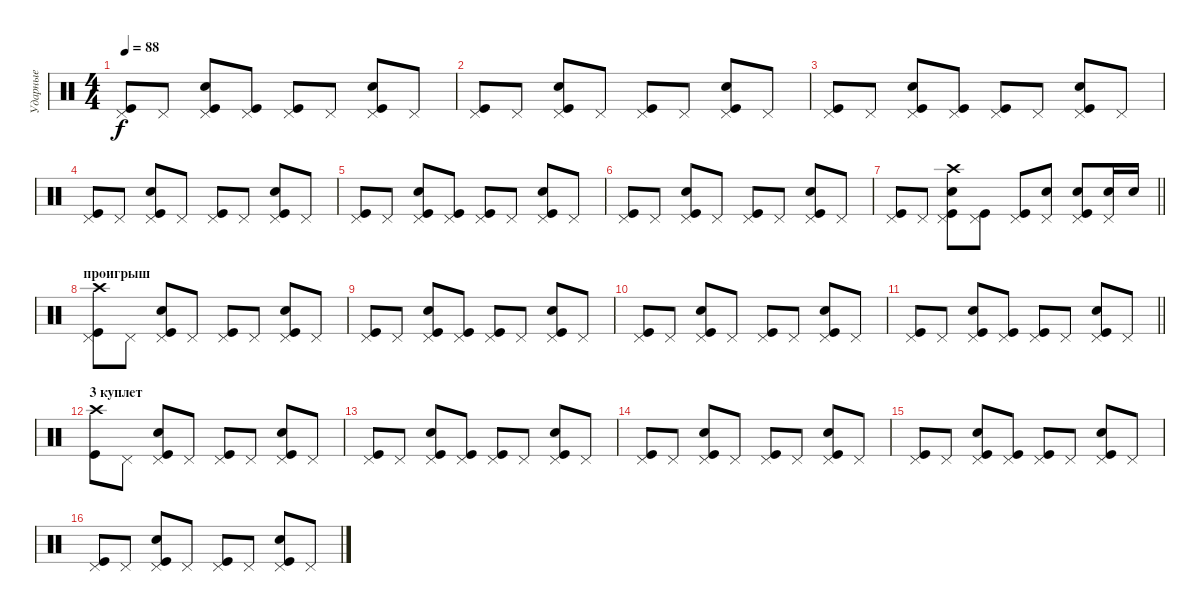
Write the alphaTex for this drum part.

\track ("Ударные" "Ударные") {instrument percussion}
\staff {score}
\articulation defaults
\ts (4 4)
\tempo 88
\clef neutral
\ks c
("Pedal Hi-Hat (hit)" "Kick (hit)").8{dy f} "Pedal Hi-Hat (hit)".8 ("Pedal Hi-Hat (hit)" "Kick (hit)" "Snare (hit) 2").8 ("Pedal Hi-Hat (hit)" "Kick (hit)").8 ("Pedal Hi-Hat (hit)" "Kick (hit)").8 "Pedal Hi-Hat (hit)".8 ("Pedal Hi-Hat (hit)" "Kick (hit)" "Snare (hit) 2").8 "Pedal Hi-Hat (hit)".8 |
("Pedal Hi-Hat (hit)" "Kick (hit)").8 "Pedal Hi-Hat (hit)".8 ("Pedal Hi-Hat (hit)" "Kick (hit)" "Snare (hit) 2").8 "Pedal Hi-Hat (hit)".8 ("Pedal Hi-Hat (hit)" "Kick (hit)").8 "Pedal Hi-Hat (hit)".8 ("Pedal Hi-Hat (hit)" "Kick (hit)" "Snare (hit) 2").8 "Pedal Hi-Hat (hit)".8 |
("Pedal Hi-Hat (hit)" "Kick (hit)").8 "Pedal Hi-Hat (hit)".8 ("Pedal Hi-Hat (hit)" "Kick (hit)" "Snare (hit) 2").8 ("Pedal Hi-Hat (hit)" "Kick (hit)").8 ("Pedal Hi-Hat (hit)" "Kick (hit)").8 "Pedal Hi-Hat (hit)".8 ("Pedal Hi-Hat (hit)" "Kick (hit)" "Snare (hit) 2").8 "Pedal Hi-Hat (hit)".8 |
("Pedal Hi-Hat (hit)" "Kick (hit)").8 "Pedal Hi-Hat (hit)".8 ("Pedal Hi-Hat (hit)" "Kick (hit)" "Snare (hit) 2").8 "Pedal Hi-Hat (hit)".8 ("Pedal Hi-Hat (hit)" "Kick (hit)").8 "Pedal Hi-Hat (hit)".8 ("Pedal Hi-Hat (hit)" "Kick (hit)" "Snare (hit) 2").8 "Pedal Hi-Hat (hit)".8 |
("Pedal Hi-Hat (hit)" "Kick (hit)").8 "Pedal Hi-Hat (hit)".8 ("Pedal Hi-Hat (hit)" "Kick (hit)" "Snare (hit) 2").8 ("Pedal Hi-Hat (hit)" "Kick (hit)").8 ("Pedal Hi-Hat (hit)" "Kick (hit)").8 "Pedal Hi-Hat (hit)".8 ("Pedal Hi-Hat (hit)" "Kick (hit)" "Snare (hit) 2").8 "Pedal Hi-Hat (hit)".8 |
("Pedal Hi-Hat (hit)" "Kick (hit)").8 "Pedal Hi-Hat (hit)".8 ("Pedal Hi-Hat (hit)" "Kick (hit)" "Snare (hit) 2").8 "Pedal Hi-Hat (hit)".8 ("Pedal Hi-Hat (hit)" "Kick (hit)").8 "Pedal Hi-Hat (hit)".8 ("Pedal Hi-Hat (hit)" "Kick (hit)" "Snare (hit) 2").8 "Pedal Hi-Hat (hit)".8 |
\barLineRight lightlight
("Pedal Hi-Hat (hit)" "Kick (hit)").8 "Pedal Hi-Hat (hit)".8 ("Pedal Hi-Hat (hit)" "Kick (hit)" "Snare (hit) 2" "Crash high (hit)").8 ("Pedal Hi-Hat (hit)" "Kick (hit)").8 ("Pedal Hi-Hat (hit)" "Kick (hit)").8 ("Pedal Hi-Hat (hit)" "Snare (hit) 2").8 ("Pedal Hi-Hat (hit)" "Kick (hit)" "Snare (hit) 2").8 ("Pedal Hi-Hat (hit)" "Snare (hit) 2").16 "Snare (hit) 2".16 |
\section ("" "проигрыш")
("Pedal Hi-Hat (hit)" "Kick (hit)" "Crash high (hit)").8 "Pedal Hi-Hat (hit)".8 ("Pedal Hi-Hat (hit)" "Kick (hit)" "Snare (hit) 2").8 "Pedal Hi-Hat (hit)".8 ("Pedal Hi-Hat (hit)" "Kick (hit)").8 "Pedal Hi-Hat (hit)".8 ("Pedal Hi-Hat (hit)" "Kick (hit)" "Snare (hit) 2").8 "Pedal Hi-Hat (hit)".8 |
("Pedal Hi-Hat (hit)" "Kick (hit)").8 "Pedal Hi-Hat (hit)".8 ("Pedal Hi-Hat (hit)" "Kick (hit)" "Snare (hit) 2").8 ("Pedal Hi-Hat (hit)" "Kick (hit)").8 ("Pedal Hi-Hat (hit)" "Kick (hit)").8 "Pedal Hi-Hat (hit)".8 ("Pedal Hi-Hat (hit)" "Kick (hit)" "Snare (hit) 2").8 "Pedal Hi-Hat (hit)".8 |
("Pedal Hi-Hat (hit)" "Kick (hit)").8 "Pedal Hi-Hat (hit)".8 ("Pedal Hi-Hat (hit)" "Kick (hit)" "Snare (hit) 2").8 "Pedal Hi-Hat (hit)".8 ("Pedal Hi-Hat (hit)" "Kick (hit)").8 "Pedal Hi-Hat (hit)".8 ("Pedal Hi-Hat (hit)" "Kick (hit)" "Snare (hit) 2").8 "Pedal Hi-Hat (hit)".8 |
\barLineRight lightlight
("Pedal Hi-Hat (hit)" "Kick (hit)").8 "Pedal Hi-Hat (hit)".8 ("Pedal Hi-Hat (hit)" "Kick (hit)" "Snare (hit) 2").8 ("Pedal Hi-Hat (hit)" "Kick (hit)").8 ("Pedal Hi-Hat (hit)" "Kick (hit)").8 "Pedal Hi-Hat (hit)".8 ("Pedal Hi-Hat (hit)" "Kick (hit)" "Snare (hit) 2").8 "Pedal Hi-Hat (hit)".8 |
\section ("" "3 куплет")
("Crash high (hit)" "Kick (hit)").8 "Pedal Hi-Hat (hit)".8 ("Pedal Hi-Hat (hit)" "Kick (hit)" "Snare (hit) 2").8 "Pedal Hi-Hat (hit)".8 ("Pedal Hi-Hat (hit)" "Kick (hit)").8 "Pedal Hi-Hat (hit)".8 ("Pedal Hi-Hat (hit)" "Kick (hit)" "Snare (hit) 2").8 "Pedal Hi-Hat (hit)".8 |
("Pedal Hi-Hat (hit)" "Kick (hit)").8 "Pedal Hi-Hat (hit)".8 ("Pedal Hi-Hat (hit)" "Kick (hit)" "Snare (hit) 2").8 ("Pedal Hi-Hat (hit)" "Kick (hit)").8 ("Pedal Hi-Hat (hit)" "Kick (hit)").8 "Pedal Hi-Hat (hit)".8 ("Pedal Hi-Hat (hit)" "Kick (hit)" "Snare (hit) 2").8 "Pedal Hi-Hat (hit)".8 |
("Pedal Hi-Hat (hit)" "Kick (hit)").8 "Pedal Hi-Hat (hit)".8 ("Pedal Hi-Hat (hit)" "Kick (hit)" "Snare (hit) 2").8 "Pedal Hi-Hat (hit)".8 ("Pedal Hi-Hat (hit)" "Kick (hit)").8 "Pedal Hi-Hat (hit)".8 ("Pedal Hi-Hat (hit)" "Kick (hit)" "Snare (hit) 2").8 "Pedal Hi-Hat (hit)".8 |
("Pedal Hi-Hat (hit)" "Kick (hit)").8 "Pedal Hi-Hat (hit)".8 ("Pedal Hi-Hat (hit)" "Kick (hit)" "Snare (hit) 2").8 ("Pedal Hi-Hat (hit)" "Kick (hit)").8 ("Pedal Hi-Hat (hit)" "Kick (hit)").8 "Pedal Hi-Hat (hit)".8 ("Pedal Hi-Hat (hit)" "Kick (hit)" "Snare (hit) 2").8 "Pedal Hi-Hat (hit)".8 |
("Pedal Hi-Hat (hit)" "Kick (hit)").8 "Pedal Hi-Hat (hit)".8 ("Pedal Hi-Hat (hit)" "Kick (hit)" "Snare (hit) 2").8 "Pedal Hi-Hat (hit)".8 ("Pedal Hi-Hat (hit)" "Kick (hit)").8 "Pedal Hi-Hat (hit)".8 ("Pedal Hi-Hat (hit)" "Kick (hit)" "Snare (hit) 2").8 "Pedal Hi-Hat (hit)".8
